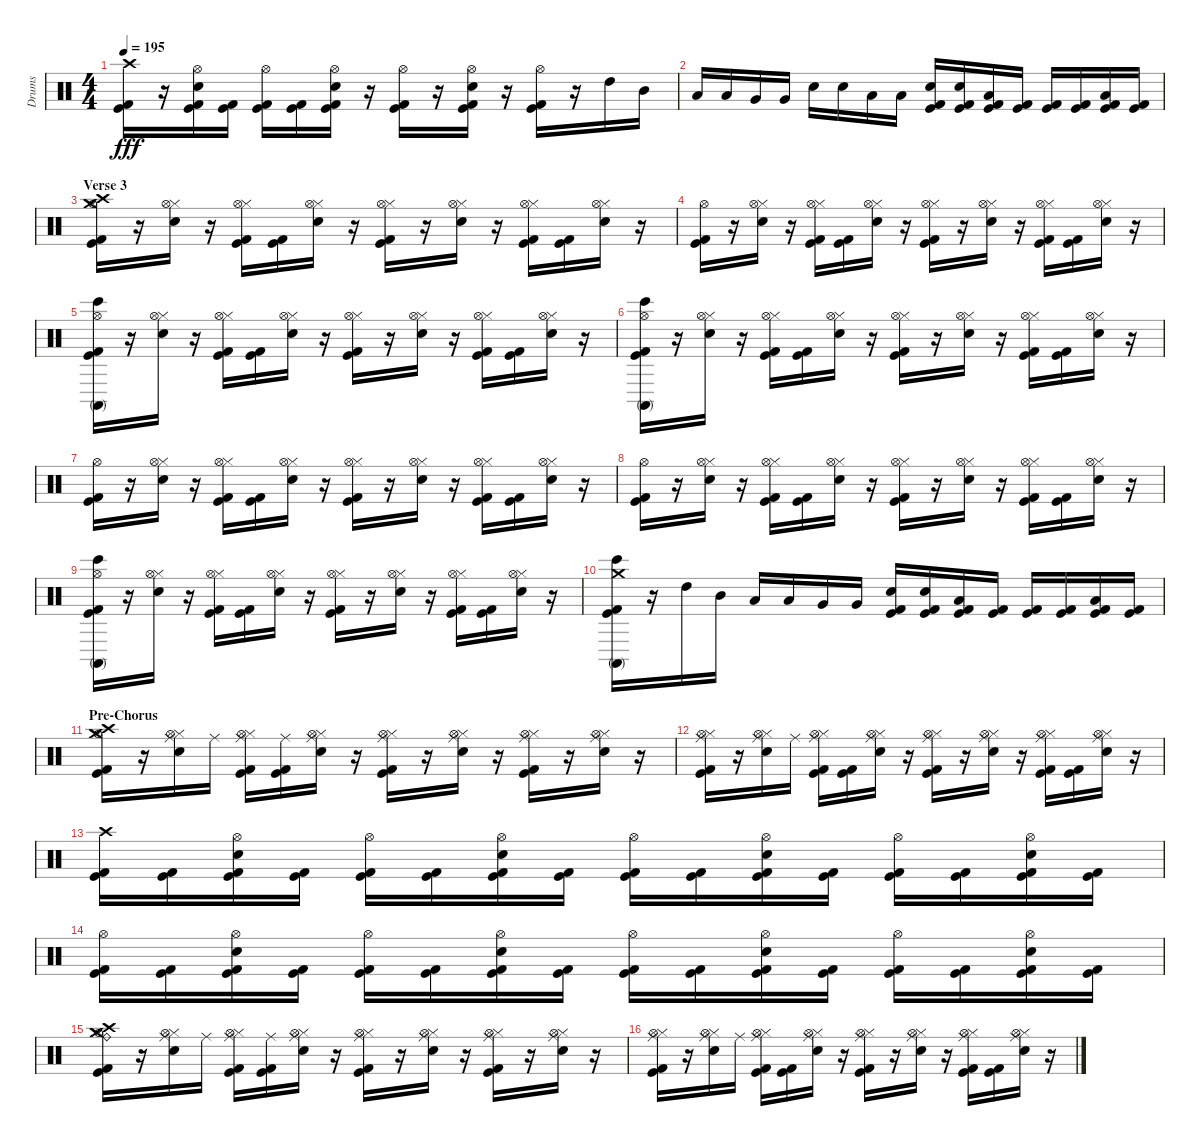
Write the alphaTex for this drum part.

\track ("Drums" "Drums") {instrument percussion}
\staff {score}
\articulation defaults
\ts (4 4)
\tempo 195
\clef neutral
\ks c
("Kick (hit) 2" "Kick (hit)" "Crash high (hit)").16{dy fff} r.16 ("Kick (hit) 2" "Kick (hit)" "Snare (hit) 2" "Hi-Hat (open)").16 ("Kick (hit) 2" "Kick (hit)").16 ("Kick (hit) 2" "Kick (hit)" "Hi-Hat (open)").16 ("Kick (hit) 2" "Kick (hit)").16 ("Kick (hit) 2" "Kick (hit)" "Snare (hit) 2" "Hi-Hat (open)").16 r.16 ("Kick (hit) 2" "Kick (hit)" "Hi-Hat (open)").16 r.16 ("Kick (hit) 2" "Kick (hit)" "Snare (hit) 2" "Hi-Hat (open)").16 r.16 ("Kick (hit) 2" "Kick (hit)" "Hi-Hat (open)").16 r.16 "High Tom (hit)".16 "Mid Tom (hit)".16 |
"Low Tom (hit)".16 "Low Tom (hit)".16 "Very Low Tom (hit)".16 "Very Low Tom (hit)".16 "Snare (hit) 2".16 "Snare (hit) 2".16 "Low Floor Tom (hit)".16 "Low Floor Tom (hit)".16 ("Kick (hit) 2" "Kick (hit)" "Snare (hit) 2").16 ("Kick (hit) 2" "Kick (hit)" "Snare (hit) 2").16 ("Kick (hit) 2" "Kick (hit)" "Low Tom (hit)").16 ("Kick (hit) 2" "Kick (hit)").16 ("Kick (hit) 2" "Kick (hit)").16 ("Kick (hit) 2" "Kick (hit)").16 ("Kick (hit) 2" "Kick (hit)" "Low Floor Tom (hit)").16 ("Kick (hit) 2" "Kick (hit)").16 |
\section ("" "Verse 3")
("Kick (hit) 2" "Kick (hit)" "Crash high (hit)" "Hi-Hat (open)" "Crash medium (hit)").16 r.16 ("Snare (hit) 2" "Hi-Hat (closed)" "Hi-Hat (open)").16 r.16 ("Kick (hit) 2" "Kick (hit)" "Hi-Hat (closed)" "Hi-Hat (open)").16 ("Kick (hit) 2" "Kick (hit)").16 ("Snare (hit) 2" "Hi-Hat (closed)" "Hi-Hat (open)").16 r.16 ("Kick (hit) 2" "Kick (hit)" "Hi-Hat (closed)" "Hi-Hat (open)").16 r.16 ("Snare (hit) 2" "Hi-Hat (closed)" "Hi-Hat (open)").16 r.16 ("Kick (hit) 2" "Kick (hit)" "Hi-Hat (closed)" "Hi-Hat (open)").16 ("Kick (hit) 2" "Kick (hit)").16 ("Snare (hit) 2" "Hi-Hat (closed)" "Hi-Hat (open)").16 r.16 |
("Kick (hit) 2" "Kick (hit)" "Hi-Hat (open)").16 r.16 ("Snare (hit) 2" "Hi-Hat (closed)" "Hi-Hat (open)").16 r.16 ("Kick (hit) 2" "Kick (hit)" "Hi-Hat (closed)" "Hi-Hat (open)").16 ("Kick (hit) 2" "Kick (hit)").16 ("Snare (hit) 2" "Hi-Hat (closed)" "Hi-Hat (open)").16 r.16 ("Kick (hit) 2" "Kick (hit)" "Hi-Hat (closed)" "Hi-Hat (open)").16 r.16 ("Snare (hit) 2" "Hi-Hat (closed)" "Hi-Hat (open)").16 r.16 ("Kick (hit) 2" "Kick (hit)" "Hi-Hat (closed)" "Hi-Hat (open)").16 ("Kick (hit) 2" "Kick (hit)").16 ("Snare (hit) 2" "Hi-Hat (closed)" "Hi-Hat (open)").16 r.16 |
("Kick (hit) 2" "Kick (hit)" "Conga high (mute)" "Bongo High (hit)" "Hi-Hat (open)").16 r.16 ("Snare (hit) 2" "Hi-Hat (closed)" "Hi-Hat (open)").16 r.16 ("Kick (hit) 2" "Kick (hit)" "Hi-Hat (closed)" "Hi-Hat (open)").16 ("Kick (hit) 2" "Kick (hit)").16 ("Snare (hit) 2" "Hi-Hat (closed)" "Hi-Hat (open)").16 r.16 ("Kick (hit) 2" "Kick (hit)" "Hi-Hat (closed)" "Hi-Hat (open)").16 r.16 ("Snare (hit) 2" "Hi-Hat (closed)" "Hi-Hat (open)").16 r.16 ("Kick (hit) 2" "Kick (hit)" "Hi-Hat (closed)" "Hi-Hat (open)").16 ("Kick (hit) 2" "Kick (hit)").16 ("Snare (hit) 2" "Hi-Hat (closed)" "Hi-Hat (open)").16 r.16 |
("Kick (hit) 2" "Kick (hit)" "Conga high (mute)" "Bongo High (hit)" "Hi-Hat (open)").16 r.16 ("Snare (hit) 2" "Hi-Hat (closed)" "Hi-Hat (open)").16 r.16 ("Kick (hit) 2" "Kick (hit)" "Hi-Hat (closed)" "Hi-Hat (open)").16 ("Kick (hit) 2" "Kick (hit)").16 ("Snare (hit) 2" "Hi-Hat (closed)" "Hi-Hat (open)").16 r.16 ("Kick (hit) 2" "Kick (hit)" "Hi-Hat (closed)" "Hi-Hat (open)").16 r.16 ("Snare (hit) 2" "Hi-Hat (closed)" "Hi-Hat (open)").16 r.16 ("Kick (hit) 2" "Kick (hit)" "Hi-Hat (closed)" "Hi-Hat (open)").16 ("Kick (hit) 2" "Kick (hit)").16 ("Snare (hit) 2" "Hi-Hat (closed)" "Hi-Hat (open)").16 r.16 |
("Kick (hit) 2" "Kick (hit)" "Hi-Hat (open)").16 r.16 ("Snare (hit) 2" "Hi-Hat (closed)" "Hi-Hat (open)").16 r.16 ("Kick (hit) 2" "Kick (hit)" "Hi-Hat (closed)" "Hi-Hat (open)").16 ("Kick (hit) 2" "Kick (hit)").16 ("Snare (hit) 2" "Hi-Hat (closed)" "Hi-Hat (open)").16 r.16 ("Kick (hit) 2" "Kick (hit)" "Hi-Hat (closed)" "Hi-Hat (open)").16 r.16 ("Snare (hit) 2" "Hi-Hat (closed)" "Hi-Hat (open)").16 r.16 ("Kick (hit) 2" "Kick (hit)" "Hi-Hat (closed)" "Hi-Hat (open)").16 ("Kick (hit) 2" "Kick (hit)").16 ("Snare (hit) 2" "Hi-Hat (closed)" "Hi-Hat (open)").16 r.16 |
("Kick (hit) 2" "Kick (hit)" "Hi-Hat (open)").16 r.16 ("Snare (hit) 2" "Hi-Hat (closed)" "Hi-Hat (open)").16 r.16 ("Kick (hit) 2" "Kick (hit)" "Hi-Hat (closed)" "Hi-Hat (open)").16 ("Kick (hit) 2" "Kick (hit)").16 ("Snare (hit) 2" "Hi-Hat (closed)" "Hi-Hat (open)").16 r.16 ("Kick (hit) 2" "Kick (hit)" "Hi-Hat (closed)" "Hi-Hat (open)").16 r.16 ("Snare (hit) 2" "Hi-Hat (closed)" "Hi-Hat (open)").16 r.16 ("Kick (hit) 2" "Kick (hit)" "Hi-Hat (closed)" "Hi-Hat (open)").16 ("Kick (hit) 2" "Kick (hit)").16 ("Snare (hit) 2" "Hi-Hat (closed)" "Hi-Hat (open)").16 r.16 |
("Kick (hit) 2" "Kick (hit)" "Conga high (mute)" "Bongo High (hit)" "Hi-Hat (open)").16 r.16 ("Snare (hit) 2" "Hi-Hat (closed)" "Hi-Hat (open)").16 r.16 ("Kick (hit) 2" "Kick (hit)" "Hi-Hat (closed)" "Hi-Hat (open)").16 ("Kick (hit) 2" "Kick (hit)").16 ("Snare (hit) 2" "Hi-Hat (closed)" "Hi-Hat (open)").16 r.16 ("Kick (hit) 2" "Kick (hit)" "Hi-Hat (closed)" "Hi-Hat (open)").16 r.16 ("Snare (hit) 2" "Hi-Hat (closed)" "Hi-Hat (open)").16 r.16 ("Kick (hit) 2" "Kick (hit)" "Hi-Hat (closed)" "Hi-Hat (open)").16 ("Kick (hit) 2" "Kick (hit)").16 ("Snare (hit) 2" "Hi-Hat (closed)" "Hi-Hat (open)").16 r.16 |
("Kick (hit) 2" "Kick (hit)" "Conga high (mute)" "Bongo High (hit)" "Crash medium (hit)").16 r.16 "High Tom (hit)".16 "Mid Tom (hit)".16 "Low Tom (hit)".16 "Low Tom (hit)".16 "Very Low Tom (hit)".16 "Very Low Tom (hit)".16 ("Kick (hit) 2" "Kick (hit)" "Snare (hit) 2").16 ("Kick (hit) 2" "Kick (hit)" "Snare (hit) 2").16 ("Kick (hit) 2" "Kick (hit)" "Low Tom (hit)").16 ("Kick (hit) 2" "Kick (hit)").16 ("Kick (hit) 2" "Kick (hit)").16 ("Kick (hit) 2" "Kick (hit)").16 ("Kick (hit) 2" "Kick (hit)" "Low Floor Tom (hit)").16 ("Kick (hit) 2" "Kick (hit)").16 |
\section ("" "Pre-Chorus")
("Kick (hit) 2" "Kick (hit)" "Crash high (hit)" "Hi-Hat (open)" "Crash medium (hit)").16 r.16 ("Snare (hit) 2" "Hi-Hat (closed)" "Ride (middle)" "Hi-Hat (open)").16 "Ride (middle)".16 ("Kick (hit) 2" "Kick (hit)" "Hi-Hat (closed)" "Ride (middle)" "Hi-Hat (open)").16 ("Kick (hit) 2" "Kick (hit)" "Ride (middle)").16 ("Snare (hit) 2" "Hi-Hat (closed)" "Ride (middle)" "Hi-Hat (open)").16 r.16 ("Kick (hit) 2" "Kick (hit)" "Hi-Hat (closed)" "Ride (middle)" "Hi-Hat (open)").16 r.16 ("Snare (hit) 2" "Hi-Hat (closed)" "Ride (middle)" "Hi-Hat (open)").16 r.16 ("Kick (hit) 2" "Kick (hit)" "Hi-Hat (closed)" "Ride (middle)" "Hi-Hat (open)").16 r.16 ("Snare (hit) 2" "Hi-Hat (closed)" "Ride (middle)" "Hi-Hat (open)").16 r.16 |
("Kick (hit) 2" "Kick (hit)" "Hi-Hat (closed)" "Ride (middle)" "Hi-Hat (open)").16 r.16 ("Snare (hit) 2" "Hi-Hat (closed)" "Ride (middle)" "Hi-Hat (open)").16 "Ride (middle)".16 ("Kick (hit) 2" "Kick (hit)" "Hi-Hat (closed)" "Ride (middle)" "Hi-Hat (open)").16 ("Kick (hit) 2" "Kick (hit)").16 ("Snare (hit) 2" "Hi-Hat (closed)" "Ride (middle)" "Hi-Hat (open)").16 r.16 ("Kick (hit) 2" "Kick (hit)" "Hi-Hat (closed)" "Ride (middle)" "Hi-Hat (open)").16 r.16 ("Snare (hit) 2" "Hi-Hat (closed)" "Ride (middle)" "Hi-Hat (open)").16 r.16 ("Kick (hit) 2" "Kick (hit)" "Hi-Hat (closed)" "Ride (middle)" "Hi-Hat (open)").16 ("Kick (hit) 2" "Kick (hit)").16 ("Snare (hit) 2" "Hi-Hat (closed)" "Ride (middle)" "Hi-Hat (open)").16 r.16 |
("Kick (hit) 2" "Kick (hit)" "Crash high (hit)").16 ("Kick (hit) 2" "Kick (hit)").16 ("Kick (hit) 2" "Kick (hit)" "Snare (hit) 2" "Hi-Hat (open)").16 ("Kick (hit) 2" "Kick (hit)").16 ("Kick (hit) 2" "Kick (hit)" "Hi-Hat (open)").16 ("Kick (hit) 2" "Kick (hit)").16 ("Kick (hit) 2" "Kick (hit)" "Snare (hit) 2" "Hi-Hat (open)").16 ("Kick (hit) 2" "Kick (hit)").16 ("Kick (hit) 2" "Kick (hit)" "Hi-Hat (open)").16 ("Kick (hit) 2" "Kick (hit)").16 ("Kick (hit) 2" "Kick (hit)" "Snare (hit) 2" "Hi-Hat (open)").16 ("Kick (hit) 2" "Kick (hit)").16 ("Kick (hit) 2" "Kick (hit)" "Hi-Hat (open)").16 ("Kick (hit) 2" "Kick (hit)").16 ("Kick (hit) 2" "Kick (hit)" "Snare (hit) 2" "Hi-Hat (open)").16 ("Kick (hit) 2" "Kick (hit)").16 |
("Kick (hit) 2" "Kick (hit)" "Hi-Hat (open)").16 ("Kick (hit) 2" "Kick (hit)").16 ("Kick (hit) 2" "Kick (hit)" "Snare (hit) 2" "Hi-Hat (open)").16 ("Kick (hit) 2" "Kick (hit)").16 ("Kick (hit) 2" "Kick (hit)" "Hi-Hat (open)").16 ("Kick (hit) 2" "Kick (hit)").16 ("Kick (hit) 2" "Kick (hit)" "Snare (hit) 2" "Hi-Hat (open)").16 ("Kick (hit) 2" "Kick (hit)").16 ("Kick (hit) 2" "Kick (hit)" "Hi-Hat (open)").16 ("Kick (hit) 2" "Kick (hit)").16 ("Kick (hit) 2" "Kick (hit)" "Snare (hit) 2" "Hi-Hat (open)").16 ("Kick (hit) 2" "Kick (hit)").16 ("Kick (hit) 2" "Kick (hit)" "Hi-Hat (open)").16 ("Kick (hit) 2" "Kick (hit)").16 ("Kick (hit) 2" "Kick (hit)" "Snare (hit) 2" "Hi-Hat (open)").16 ("Kick (hit) 2" "Kick (hit)").16 |
("Kick (hit) 2" "Kick (hit)" "Crash high (hit)" "Ride (bell)" "Hi-Hat (open)" "Crash medium (hit)").16 r.16 ("Snare (hit) 2" "Hi-Hat (closed)" "Ride (middle)" "Hi-Hat (open)").16 "Ride (middle)".16 ("Kick (hit) 2" "Kick (hit)" "Hi-Hat (closed)" "Ride (middle)" "Hi-Hat (open)").16 ("Kick (hit) 2" "Kick (hit)" "Ride (middle)").16 ("Snare (hit) 2" "Hi-Hat (closed)" "Ride (middle)" "Hi-Hat (open)").16 r.16 ("Kick (hit) 2" "Kick (hit)" "Hi-Hat (closed)" "Ride (middle)" "Hi-Hat (open)").16 r.16 ("Snare (hit) 2" "Hi-Hat (closed)" "Ride (middle)" "Hi-Hat (open)").16 r.16 ("Kick (hit) 2" "Kick (hit)" "Hi-Hat (closed)" "Ride (middle)" "Hi-Hat (open)").16 r.16 ("Snare (hit) 2" "Hi-Hat (closed)" "Ride (middle)" "Hi-Hat (open)").16 r.16 |
("Kick (hit) 2" "Kick (hit)" "Hi-Hat (closed)" "Ride (middle)" "Hi-Hat (open)").16 r.16 ("Snare (hit) 2" "Hi-Hat (closed)" "Ride (middle)" "Hi-Hat (open)").16 "Ride (middle)".16 ("Kick (hit) 2" "Kick (hit)" "Hi-Hat (closed)" "Ride (middle)" "Hi-Hat (open)").16 ("Kick (hit) 2" "Kick (hit)").16 ("Snare (hit) 2" "Hi-Hat (closed)" "Ride (middle)" "Hi-Hat (open)").16 r.16 ("Kick (hit) 2" "Kick (hit)" "Hi-Hat (closed)" "Ride (middle)" "Hi-Hat (open)").16 r.16 ("Snare (hit) 2" "Hi-Hat (closed)" "Ride (middle)" "Hi-Hat (open)").16 r.16 ("Kick (hit) 2" "Kick (hit)" "Hi-Hat (closed)" "Ride (middle)" "Hi-Hat (open)").16 ("Kick (hit) 2" "Kick (hit)").16 ("Snare (hit) 2" "Hi-Hat (closed)" "Ride (middle)" "Hi-Hat (open)").16 r.16
